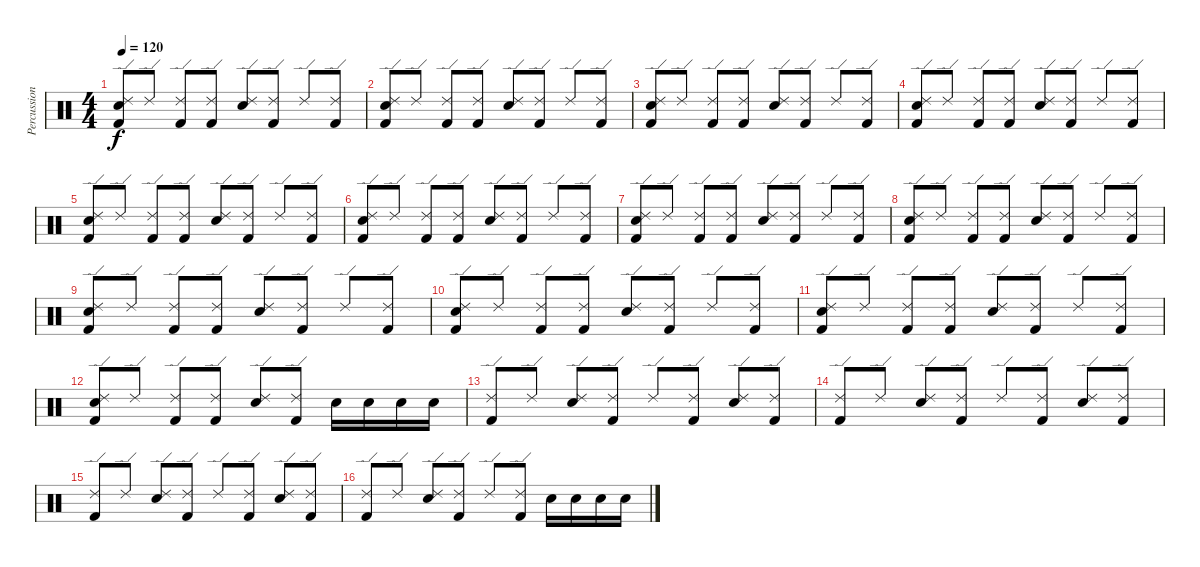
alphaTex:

\track ("Percussion" "Percussion") {instrument percussion}
\staff {score}
\articulation defaults
\ts (4 4)
\tempo 120
\clef neutral
\ks c
("Kick (hit) 2" "Electric Snare (hit)" "Ride (edge) 2").8{dy f} "Ride (edge) 2".8 ("Kick (hit) 2" "Ride (edge) 2").8 ("Kick (hit) 2" "Ride (edge) 2").8 ("Electric Snare (hit)" "Ride (edge) 2").8 ("Kick (hit) 2" "Ride (edge) 2").8 "Ride (edge) 2".8 ("Kick (hit) 2" "Ride (edge) 2").8 |
("Kick (hit) 2" "Electric Snare (hit)" "Ride (edge) 2").8 "Ride (edge) 2".8 ("Kick (hit) 2" "Ride (edge) 2").8 ("Kick (hit) 2" "Ride (edge) 2").8 ("Electric Snare (hit)" "Ride (edge) 2").8 ("Kick (hit) 2" "Ride (edge) 2").8 "Ride (edge) 2".8 ("Kick (hit) 2" "Ride (edge) 2").8 |
("Kick (hit) 2" "Electric Snare (hit)" "Ride (edge) 2").8 "Ride (edge) 2".8 ("Kick (hit) 2" "Ride (edge) 2").8 ("Kick (hit) 2" "Ride (edge) 2").8 ("Electric Snare (hit)" "Ride (edge) 2").8 ("Kick (hit) 2" "Ride (edge) 2").8 "Ride (edge) 2".8 ("Kick (hit) 2" "Ride (edge) 2").8 |
("Kick (hit) 2" "Electric Snare (hit)" "Ride (edge) 2").8 "Ride (edge) 2".8 ("Kick (hit) 2" "Ride (edge) 2").8 ("Kick (hit) 2" "Ride (edge) 2").8 ("Electric Snare (hit)" "Ride (edge) 2").8 ("Kick (hit) 2" "Ride (edge) 2").8 "Ride (edge) 2".8 ("Kick (hit) 2" "Ride (edge) 2").8 |
("Kick (hit) 2" "Electric Snare (hit)" "Ride (edge) 2").8 "Ride (edge) 2".8 ("Kick (hit) 2" "Ride (edge) 2").8 ("Kick (hit) 2" "Ride (edge) 2").8 ("Electric Snare (hit)" "Ride (edge) 2").8 ("Kick (hit) 2" "Ride (edge) 2").8 "Ride (edge) 2".8 ("Kick (hit) 2" "Ride (edge) 2").8 |
("Kick (hit) 2" "Electric Snare (hit)" "Ride (edge) 2").8 "Ride (edge) 2".8 ("Kick (hit) 2" "Ride (edge) 2").8 ("Kick (hit) 2" "Ride (edge) 2").8 ("Electric Snare (hit)" "Ride (edge) 2").8 ("Kick (hit) 2" "Ride (edge) 2").8 "Ride (edge) 2".8 ("Kick (hit) 2" "Ride (edge) 2").8 |
("Kick (hit) 2" "Electric Snare (hit)" "Ride (edge) 2").8 "Ride (edge) 2".8 ("Kick (hit) 2" "Ride (edge) 2").8 ("Kick (hit) 2" "Ride (edge) 2").8 ("Electric Snare (hit)" "Ride (edge) 2").8 ("Kick (hit) 2" "Ride (edge) 2").8 "Ride (edge) 2".8 ("Kick (hit) 2" "Ride (edge) 2").8 |
("Kick (hit) 2" "Electric Snare (hit)" "Ride (edge) 2").8 "Ride (edge) 2".8 ("Kick (hit) 2" "Ride (edge) 2").8 ("Kick (hit) 2" "Ride (edge) 2").8 ("Electric Snare (hit)" "Ride (edge) 2").8 ("Kick (hit) 2" "Ride (edge) 2").8 "Ride (edge) 2".8 ("Kick (hit) 2" "Ride (edge) 2").8 |
("Kick (hit) 2" "Electric Snare (hit)" "Ride (edge) 2").8 "Ride (edge) 2".8 ("Kick (hit) 2" "Ride (edge) 2").8 ("Kick (hit) 2" "Ride (edge) 2").8 ("Electric Snare (hit)" "Ride (edge) 2").8 ("Kick (hit) 2" "Ride (edge) 2").8 "Ride (edge) 2".8 ("Kick (hit) 2" "Ride (edge) 2").8 |
("Kick (hit) 2" "Electric Snare (hit)" "Ride (edge) 2").8 "Ride (edge) 2".8 ("Kick (hit) 2" "Ride (edge) 2").8 ("Kick (hit) 2" "Ride (edge) 2").8 ("Electric Snare (hit)" "Ride (edge) 2").8 ("Kick (hit) 2" "Ride (edge) 2").8 "Ride (edge) 2".8 ("Kick (hit) 2" "Ride (edge) 2").8 |
("Kick (hit) 2" "Electric Snare (hit)" "Ride (edge) 2").8 "Ride (edge) 2".8 ("Kick (hit) 2" "Ride (edge) 2").8 ("Kick (hit) 2" "Ride (edge) 2").8 ("Electric Snare (hit)" "Ride (edge) 2").8 ("Kick (hit) 2" "Ride (edge) 2").8 "Ride (edge) 2".8 ("Kick (hit) 2" "Ride (edge) 2").8 |
("Kick (hit) 2" "Electric Snare (hit)" "Ride (edge) 2").8 "Ride (edge) 2".8 ("Kick (hit) 2" "Ride (edge) 2").8 ("Kick (hit) 2" "Ride (edge) 2").8 ("Electric Snare (hit)" "Ride (edge) 2").8 ("Kick (hit) 2" "Ride (edge) 2").8 "Electric Snare (hit)".16 "Electric Snare (hit)".16 "Electric Snare (hit)".16 "Electric Snare (hit)".16 |
("Kick (hit) 2" "Ride (edge) 2").8 "Ride (edge) 2".8 ("Electric Snare (hit)" "Ride (edge) 2").8 ("Kick (hit) 2" "Ride (edge) 2").8 "Ride (edge) 2".8 ("Kick (hit) 2" "Ride (edge) 2").8 ("Electric Snare (hit)" "Ride (edge) 2").8 ("Kick (hit) 2" "Ride (edge) 2").8 |
("Kick (hit) 2" "Ride (edge) 2").8 "Ride (edge) 2".8 ("Electric Snare (hit)" "Ride (edge) 2").8 ("Kick (hit) 2" "Ride (edge) 2").8 "Ride (edge) 2".8 ("Kick (hit) 2" "Ride (edge) 2").8 ("Electric Snare (hit)" "Ride (edge) 2").8 ("Kick (hit) 2" "Ride (edge) 2").8 |
("Kick (hit) 2" "Ride (edge) 2").8 "Ride (edge) 2".8 ("Electric Snare (hit)" "Ride (edge) 2").8 ("Kick (hit) 2" "Ride (edge) 2").8 "Ride (edge) 2".8 ("Kick (hit) 2" "Ride (edge) 2").8 ("Electric Snare (hit)" "Ride (edge) 2").8 ("Kick (hit) 2" "Ride (edge) 2").8 |
("Kick (hit) 2" "Ride (edge) 2").8 "Ride (edge) 2".8 ("Electric Snare (hit)" "Ride (edge) 2").8 ("Kick (hit) 2" "Ride (edge) 2").8 "Ride (edge) 2".8 ("Kick (hit) 2" "Ride (edge) 2").8 "Electric Snare (hit)".16 "Electric Snare (hit)".16 "Electric Snare (hit)".16 "Electric Snare (hit)".16
